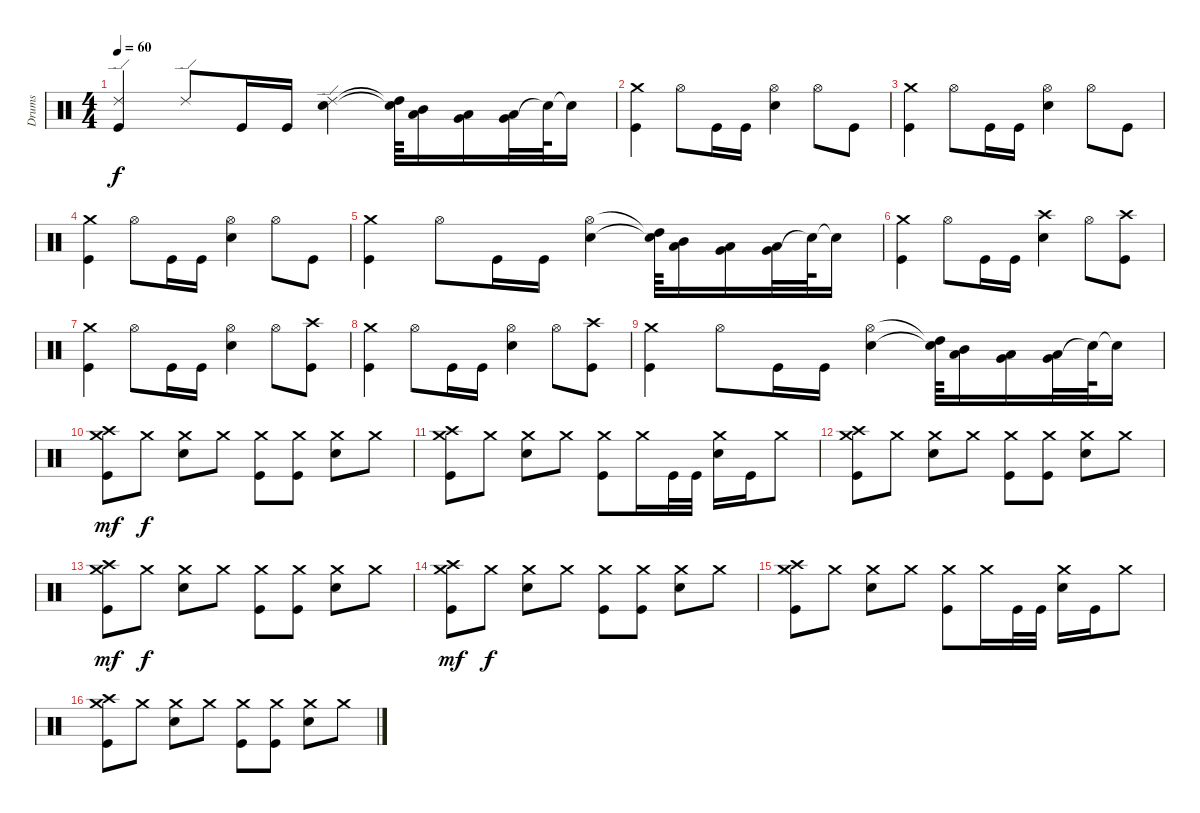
\track ("Drums" "Drums") {instrument percussion}
\staff {score}
\articulation defaults
\ts (4 4)
\tempo 60
\clef neutral
\ks c
("Ride (edge) 2" "Kick (hit)").4{dy f} "Ride (edge) 2".8 "Kick (hit)".16 "Kick (hit)".16 ("Ride (edge) 2" "Snare (hit) 2").4 ("High Tom (hit)"{t} "Snare (hit)"{t}).64 ("Mid Tom (hit)" "Low Tom (hit)").16 ("Low Tom (hit)" "Very Low Tom (hit)").16 ("Very Low Tom (hit)" "Low Floor Tom (hit)").32 "Snare (hit)"{t}.64 "Snare (hit)"{t}.16 |
("Crash medium (hit)" "Kick (hit)").4 "Hi-Hat (open)".8 "Kick (hit)".16 "Kick (hit)".16 ("Hi-Hat (open)" "Snare (hit) 2").4 "Hi-Hat (open)".8 "Kick (hit)".8 |
("Crash medium (hit)" "Kick (hit)").4 "Hi-Hat (open)".8 "Kick (hit)".16 "Kick (hit)".16 ("Hi-Hat (open)" "Snare (hit) 2").4 "Hi-Hat (open)".8 "Kick (hit)".8 |
("Crash medium (hit)" "Kick (hit)").4 "Hi-Hat (open)".8 "Kick (hit)".16 "Kick (hit)".16 ("Hi-Hat (open)" "Snare (hit) 2").4 "Hi-Hat (open)".8 "Kick (hit)".8 |
("Crash medium (hit)" "Kick (hit)").4 "Hi-Hat (open)".8 "Kick (hit)".16 "Kick (hit)".16 ("Hi-Hat (open)" "Snare (hit) 2").4 ("High Tom (hit)"{t} "Snare (hit)"{t}).64 ("Mid Tom (hit)" "Low Tom (hit)").16 ("Low Tom (hit)" "Very Low Tom (hit)").16 ("Very Low Tom (hit)" "Low Floor Tom (hit)").32 "Snare (hit)"{t}.64 "Snare (hit)"{t}.16 |
("Crash medium (hit)" "Kick (hit)").4 "Hi-Hat (open)".8 "Kick (hit)".16 "Kick (hit)".16 ("Crash high (hit)" "Snare (hit) 2").4 "Hi-Hat (open)".8 ("Crash high (hit)" "Kick (hit)").8 |
("Crash medium (hit)" "Kick (hit)").4 "Hi-Hat (open)".8 "Kick (hit)".16 "Kick (hit)".16 ("Hi-Hat (open)" "Snare (hit) 2").4 "Hi-Hat (open)".8 ("Crash high (hit)" "Kick (hit)").8 |
("Crash medium (hit)" "Kick (hit)").4 "Hi-Hat (open)".8 "Kick (hit)".16 "Kick (hit)".16 ("Hi-Hat (open)" "Snare (hit) 2").4 "Hi-Hat (open)".8 ("Crash high (hit)" "Kick (hit)").8 |
("Crash medium (hit)" "Kick (hit)").4 "Hi-Hat (open)".8 "Kick (hit)".16 "Kick (hit)".16 ("Hi-Hat (open)" "Snare (hit) 2").4 ("High Tom (hit)"{t} "Snare (hit)"{t}).64 ("Mid Tom (hit)" "Low Tom (hit)").16 ("Low Tom (hit)" "Very Low Tom (hit)").16 ("Very Low Tom (hit)" "Low Floor Tom (hit)").32 "Snare (hit)"{t}.64 "Snare (hit)"{t}.16 |
("Crash medium (hit)" "Crash high (hit)" "Kick (hit)").8{dy mf} "Crash medium (hit)".8{dy f} ("Crash medium (hit)" "Snare (hit) 2").8 "Crash medium (hit)".8 ("Crash medium (hit)" "Kick (hit)").8 ("Crash medium (hit)" "Kick (hit)").8 ("Crash medium (hit)" "Snare (hit) 2").8 "Crash medium (hit)".8 |
("Crash medium (hit)" "Crash high (hit)" "Kick (hit)").8 "Crash medium (hit)".8 ("Crash medium (hit)" "Snare (hit) 2").8 "Crash medium (hit)".8 ("Crash medium (hit)" "Kick (hit)").8 "Crash medium (hit)".16 "Kick (hit)".32 "Kick (hit)".32 ("Crash medium (hit)" "Snare (hit) 2").16 "Kick (hit)".16 "Crash medium (hit)".8 |
("Crash medium (hit)" "Crash high (hit)" "Kick (hit)").8 "Crash medium (hit)".8 ("Crash medium (hit)" "Snare (hit) 2").8 "Crash medium (hit)".8 ("Crash medium (hit)" "Kick (hit)").8 ("Crash medium (hit)" "Kick (hit)").8 ("Crash medium (hit)" "Snare (hit) 2").8 "Crash medium (hit)".8 |
("Crash medium (hit)" "Crash high (hit)" "Kick (hit)").8{dy mf} "Crash medium (hit)".8{dy f} ("Crash medium (hit)" "Snare (hit) 2").8 "Crash medium (hit)".8 ("Crash medium (hit)" "Kick (hit)").8 ("Crash medium (hit)" "Kick (hit)").8 ("Crash medium (hit)" "Snare (hit) 2").8 "Crash medium (hit)".8 |
("Crash medium (hit)" "Crash high (hit)" "Kick (hit)").8{dy mf} "Crash medium (hit)".8{dy f} ("Crash medium (hit)" "Snare (hit) 2").8 "Crash medium (hit)".8 ("Crash medium (hit)" "Kick (hit)").8 ("Crash medium (hit)" "Kick (hit)").8 ("Crash medium (hit)" "Snare (hit) 2").8 "Crash medium (hit)".8 |
("Crash medium (hit)" "Crash high (hit)" "Kick (hit)").8 "Crash medium (hit)".8 ("Crash medium (hit)" "Snare (hit) 2").8 "Crash medium (hit)".8 ("Crash medium (hit)" "Kick (hit)").8 "Crash medium (hit)".16 "Kick (hit)".32 "Kick (hit)".32 ("Crash medium (hit)" "Snare (hit) 2").16 "Kick (hit)".16 "Crash medium (hit)".8 |
("Crash medium (hit)" "Crash high (hit)" "Kick (hit)").8 "Crash medium (hit)".8 ("Crash medium (hit)" "Snare (hit) 2").8 "Crash medium (hit)".8 ("Crash medium (hit)" "Kick (hit)").8 ("Crash medium (hit)" "Kick (hit)").8 ("Crash medium (hit)" "Snare (hit) 2").8 "Crash medium (hit)".8
